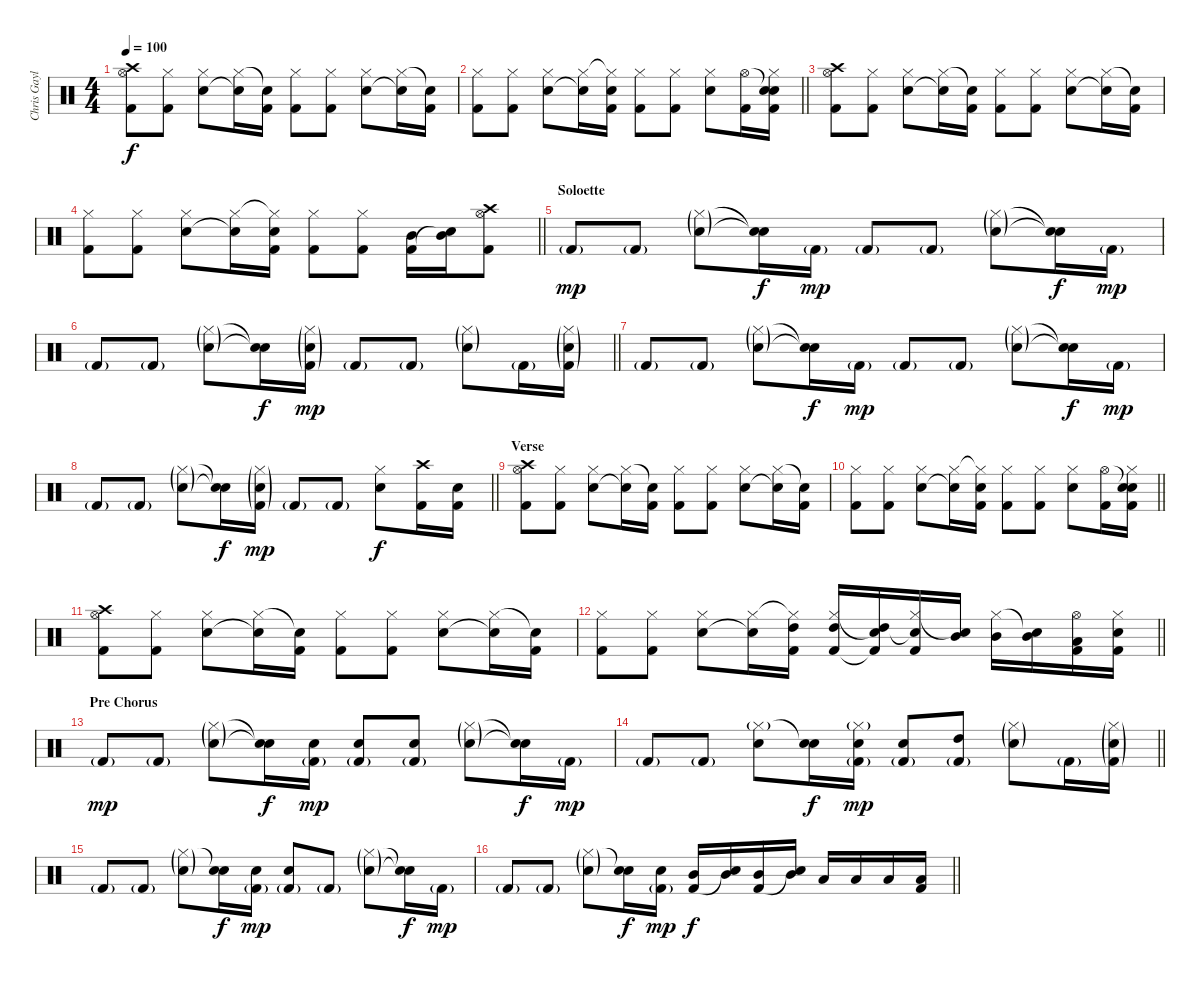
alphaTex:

\track ("Chris Gaylor (Drums)" "Chris Gayl") {instrument percussion}
\staff {score}
\articulation defaults
\ts (4 4)
\tempo 100
\clef neutral
\ks c
("Hi-Hat (open)" "Crash high (hit)" "Kick (hit) 2").8{dy f} ("Hi-Hat (closed)" "Kick (hit) 2").8 ("Hi-Hat (closed)" "Snare (hit) 2").8 ("Hi-Hat (closed)" "Snare (hit)"{t}).16 ("Snare (hit)"{t} "Kick (hit) 2").16 ("Hi-Hat (closed)" "Kick (hit) 2").8 ("Hi-Hat (closed)" "Kick (hit) 2").8 ("Hi-Hat (closed)" "Snare (hit) 2").8 ("Hi-Hat (closed)" "Snare (hit)"{t}).16 ("Snare (hit)"{t} "Kick (hit) 2").16 |
\barLineRight lightlight
("Hi-Hat (closed)" "Kick (hit) 2").8 ("Hi-Hat (closed)" "Kick (hit) 2").8 ("Hi-Hat (closed)" "Snare (hit) 2").8 ("Hi-Hat (closed)" "Snare (hit)"{t}).16 ("Hi-Hat (closed)"{t} "Snare (hit) 2" "Kick (hit) 2").16 ("Hi-Hat (closed)" "Kick (hit) 2").8 ("Hi-Hat (closed)" "Kick (hit) 2").8 ("Hi-Hat (closed)" "Snare (hit) 2").8 ("Hi-Hat (open)" "Kick (hit) 2").16 ("Snare (hit)"{t} "Hi-Hat (closed)" "Snare (hit) 2" "Kick (hit) 2").16 |
("Hi-Hat (open)" "Crash high (hit)" "Kick (hit) 2").8 ("Hi-Hat (closed)" "Kick (hit) 2").8 ("Hi-Hat (closed)" "Snare (hit) 2").8 ("Hi-Hat (closed)" "Snare (hit)"{t}).16 ("Snare (hit)"{t} "Kick (hit) 2").16 ("Hi-Hat (closed)" "Kick (hit) 2").8 ("Hi-Hat (closed)" "Kick (hit) 2").8 ("Hi-Hat (closed)" "Snare (hit) 2").8 ("Hi-Hat (closed)" "Snare (hit)"{t}).16 ("Snare (hit)"{t} "Kick (hit) 2").16 |
\barLineRight lightlight
("Hi-Hat (closed)" "Kick (hit) 2").8 ("Hi-Hat (closed)" "Kick (hit) 2").8 ("Hi-Hat (closed)" "Snare (hit) 2").8 ("Hi-Hat (closed)" "Snare (hit)"{t}).16 ("Hi-Hat (closed)"{t} "Snare (hit) 2" "Kick (hit) 2").16 ("Hi-Hat (closed)" "Kick (hit) 2").8 ("Hi-Hat (closed)" "Kick (hit) 2").8 ("Mid Tom (hit)" "Kick (hit) 2").16 ("Mid Tom (hit)" "Snare (hit)"{t}).16 ("Hi-Hat (open)" "Crash high (hit)" "Kick (hit) 2").8 |
\section ("" "Soloette")
"Kick (hit) 2"{g}.8{dy mp} "Kick (hit) 2"{g}.8 ("Hi-Hat (closed)"{g} "Snare (hit) 2"{g}).8 ("Snare (hit)"{t} "Snare (hit)"{t}).16{dy f} "Kick (hit) 2"{g}.16{dy mp} "Kick (hit) 2"{g}.8 "Kick (hit) 2"{g}.8 ("Hi-Hat (closed)"{g} "Snare (hit) 2"{g}).8 ("Snare (hit)"{t} "Snare (hit)"{t}).16{dy f} "Kick (hit) 2"{g}.16{dy mp} |
\barLineRight lightlight "Kick (hit) 2"{g}.8 "Kick (hit) 2"{g}.8
("Hi-Hat (closed)"{g} "Snare (hit) 2"{g}).8 ("Snare (hit)"{t} "Snare (hit)"{t}).16{dy f} ("Hi-Hat (closed)"{g} "Snare (hit) 2"{g} "Kick (hit) 2"{g}).16{dy mp} "Kick (hit) 2"{g}.8 "Kick (hit) 2"{g}.8 ("Hi-Hat (closed)"{g} "Snare (hit) 2"{g}).8 "Kick (hit) 2"{g}.16 ("Hi-Hat (closed)"{g} "Snare (hit) 2"{g} "Kick (hit) 2"{g}).16 |
"Kick (hit) 2"{g}.8 "Kick (hit) 2"{g}.8 ("Hi-Hat (closed)"{g} "Snare (hit) 2"{g}).8 ("Snare (hit)"{t} "Snare (hit)"{t}).16{dy f} "Kick (hit) 2"{g}.16{dy mp} "Kick (hit) 2"{g}.8 "Kick (hit) 2"{g}.8 ("Hi-Hat (closed)"{g} "Snare (hit) 2"{g}).8 ("Snare (hit)"{t} "Snare (hit)"{t}).16{dy f} "Kick (hit) 2"{g}.16{dy mp} |
\barLineRight lightlight "Kick (hit) 2"{g}.8 "Kick (hit) 2"{g}.8
("Hi-Hat (closed)"{g} "Snare (hit) 2"{g}).8 ("Snare (hit)"{t} "Snare (hit)"{t}).16{dy f} ("Hi-Hat (closed)"{g} "Snare (hit) 2"{g} "Kick (hit) 2"{g}).16{dy mp} "Kick (hit) 2"{g}.8 "Kick (hit) 2"{g}.8 ("Hi-Hat (closed)" "Snare (hit) 2").8{dy f} ("Crash high (hit)" "Kick (hit) 2").16 ("Snare (hit) 2" "Kick (hit) 2").16 |
\section ("" "Verse")
("Hi-Hat (open)" "Crash high (hit)" "Kick (hit) 2").8 ("Hi-Hat (closed)" "Kick (hit) 2").8 ("Hi-Hat (closed)" "Snare (hit) 2").8 ("Hi-Hat (closed)" "Snare (hit)"{t}).16 ("Snare (hit)"{t} "Kick (hit) 2").16 ("Hi-Hat (closed)" "Kick (hit) 2").8 ("Hi-Hat (closed)" "Kick (hit) 2").8 ("Hi-Hat (closed)" "Snare (hit) 2").8 ("Hi-Hat (closed)" "Snare (hit)"{t}).16 ("Snare (hit)"{t} "Kick (hit) 2").16 |
\barLineRight lightlight
("Hi-Hat (closed)" "Kick (hit) 2").8 ("Hi-Hat (closed)" "Kick (hit) 2").8 ("Hi-Hat (closed)" "Snare (hit) 2").8 ("Hi-Hat (closed)" "Snare (hit)"{t}).16 ("Hi-Hat (closed)"{t} "Snare (hit) 2" "Kick (hit) 2").16 ("Hi-Hat (closed)" "Kick (hit) 2").8 ("Hi-Hat (closed)" "Kick (hit) 2").8 ("Hi-Hat (closed)" "Snare (hit) 2").8 ("Hi-Hat (open)" "Kick (hit) 2").16 ("Snare (hit)"{t} "Hi-Hat (closed)" "Snare (hit) 2" "Kick (hit) 2").16 |
("Hi-Hat (open)" "Crash high (hit)" "Kick (hit) 2").8 ("Hi-Hat (closed)" "Kick (hit) 2").8 ("Hi-Hat (closed)" "Snare (hit) 2").8 ("Hi-Hat (closed)" "Snare (hit)"{t}).16 ("Snare (hit)"{t} "Kick (hit) 2").16 ("Hi-Hat (closed)" "Kick (hit) 2").8 ("Hi-Hat (closed)" "Kick (hit) 2").8 ("Hi-Hat (closed)" "Snare (hit) 2").8 ("Hi-Hat (closed)" "Snare (hit)"{t}).16 ("Snare (hit)"{t} "Kick (hit) 2").16 |
\barLineRight lightlight
("Hi-Hat (closed)" "Kick (hit) 2").8 ("Hi-Hat (closed)" "Kick (hit) 2").8 ("Hi-Hat (closed)" "Snare (hit) 2").8 ("Hi-Hat (closed)" "Snare (hit)"{t}).16 ("Hi-Hat (closed)"{t} "High Tom (hit)" "Kick (hit) 2").16 ("Hi-Hat (closed)" "High Tom (hit)" "Kick (hit) 2").16 ("Snare (hit)"{t} "High Tom (hit)" "Kick (hit) 2"{t}).16 ("Hi-Hat (closed)" "Snare (hit)"{t} "Kick (hit) 2").16 ("Snare (hit)"{t} "Mid Tom (hit)").16 ("Hi-Hat (closed)" "Mid Tom (hit)").16 ("Snare (hit)"{t} "Mid Tom (hit)").16 ("Hi-Hat (open)" "Low Floor Tom (hit)" "Kick (hit) 2").16 ("Hi-Hat (closed)" "Snare (hit) 2" "Kick (hit) 2").16 |
\section ("" "Pre Chorus")
"Kick (hit) 2"{g}.8{dy mp} "Kick (hit) 2"{g}.8 ("Hi-Hat (closed)"{g} "Snare (hit) 2"{g}).8 ("Snare (hit)"{t} "Snare (hit)"{t}).16{dy f} ("Snare (hit) 2" "Kick (hit) 2"{g}).16{dy mp} ("Snare (hit) 2" "Kick (hit) 2"{g}).8 ("Snare (hit) 2" "Kick (hit) 2"{g}).8 ("Hi-Hat (closed)"{g} "Snare (hit) 2"{g}).8 ("Snare (hit)"{t} "Snare (hit)"{t}).16{dy f} "Kick (hit) 2"{g}.16{dy mp} |
\barLineRight lightlight "Kick (hit) 2"{g}.8 "Kick (hit) 2"{g}.8
("Hi-Hat (closed)"{g} "Snare (hit) 2").8 ("Snare (hit)"{t} "Snare (hit) 2").16{dy f} ("Hi-Hat (closed)"{g} "Snare (hit) 2" "Kick (hit) 2"{g}).16{dy mp} ("Snare (hit) 2" "Kick (hit) 2"{g}).8 ("High Tom (hit)" "Kick (hit) 2"{g}).8 ("Hi-Hat (closed)"{g} "Snare (hit) 2"{g}).8 "Kick (hit) 2"{g}.16 ("Hi-Hat (closed)"{g} "Snare (hit) 2"{g} "Kick (hit) 2"{g}).16 |
"Kick (hit) 2"{g}.8 "Kick (hit) 2"{g}.8 ("Hi-Hat (closed)"{g} "Snare (hit) 2"{g}).8 ("Snare (hit)"{t} "Snare (hit) 2").16{dy f} ("Snare (hit) 2" "Kick (hit) 2"{g}).16{dy mp} ("Snare (hit) 2" "Kick (hit) 2"{g}).8 "Kick (hit) 2"{g}.8 ("Hi-Hat (closed)"{g} "Snare (hit) 2"{g}).8 ("Snare (hit)"{t} "Snare (hit)"{t}).16{dy f} "Kick (hit) 2"{g}.16{dy mp} |
\barLineRight lightlight "Kick (hit) 2"{g}.8 "Kick (hit) 2"{g}.8
("Hi-Hat (closed)"{g} "Snare (hit) 2"{g}).8 ("Snare (hit)"{t} "Snare (hit) 2").16{dy f} ("Snare (hit) 2" "Kick (hit) 2"{g}).16{dy mp} ("Mid Tom (hit)" "Kick (hit) 2").16{dy f} ("Mid Tom (hit)" "Snare (hit)"{t}).16 ("Mid Tom (hit)" "Kick (hit) 2").16 ("Mid Tom (hit)" "Snare (hit)"{t}).16 "Low Floor Tom (hit)".16 "Low Floor Tom (hit)".16 "Low Floor Tom (hit)".16 ("Low Floor Tom (hit)" "Kick (hit) 2").16
